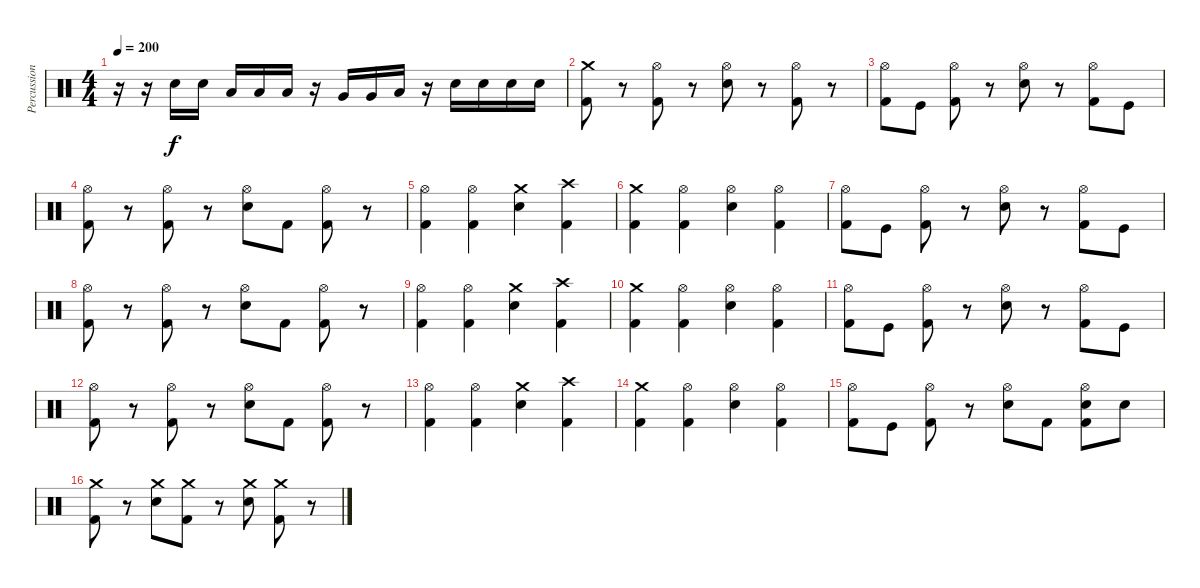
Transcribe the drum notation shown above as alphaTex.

\track ("Percussion" "Percussion") {instrument percussion}
\staff {score}
\articulation defaults
\ts (4 4)
\tempo 200
\clef neutral
\ks c
r.16{dy f} r.16 "Snare (hit) 2".16 "Snare (hit) 2".16 "Low Tom (hit)".16 "Low Tom (hit)".16 "Low Tom (hit)".16 r.16 "Very Low Tom (hit)".16 "Very Low Tom (hit)".16 "Low Floor Tom (hit)".16 r.16 "Snare (hit) 2".16 "Snare (hit) 2".16 "Snare (hit) 2".16 "Snare (hit) 2".16 |
("Crash medium (hit)" "Kick (hit) 2").8 r.8 ("Hi-Hat (open)" "Kick (hit) 2").8 r.8 ("Hi-Hat (open)" "Snare (hit) 2").8 r.8 ("Hi-Hat (open)" "Kick (hit) 2").8 r.8 |
("Hi-Hat (open)" "Kick (hit) 2").8 "Kick (hit)".8 ("Hi-Hat (open)" "Kick (hit) 2").8 r.8 ("Hi-Hat (open)" "Snare (hit) 2").8 r.8 ("Hi-Hat (open)" "Kick (hit) 2").8 "Kick (hit)".8 |
("Hi-Hat (open)" "Kick (hit) 2").8 r.8 ("Hi-Hat (open)" "Kick (hit) 2").8 r.8 ("Hi-Hat (open)" "Snare (hit) 2").8 "Kick (hit) 2".8 ("Hi-Hat (open)" "Kick (hit) 2").8 r.8 |
("Hi-Hat (open)" "Kick (hit) 2").4 ("Hi-Hat (open)" "Kick (hit) 2").4 ("Crash medium (hit)" "Snare (hit) 2").4 ("Crash high (hit)" "Kick (hit) 2").4 |
("Crash medium (hit)" "Kick (hit) 2").4 ("Hi-Hat (open)" "Kick (hit) 2").4 ("Hi-Hat (open)" "Snare (hit) 2").4 ("Hi-Hat (open)" "Kick (hit) 2").4 |
("Hi-Hat (open)" "Kick (hit) 2").8 "Kick (hit)".8 ("Hi-Hat (open)" "Kick (hit) 2").8 r.8 ("Hi-Hat (open)" "Snare (hit) 2").8 r.8 ("Hi-Hat (open)" "Kick (hit) 2").8 "Kick (hit)".8 |
("Hi-Hat (open)" "Kick (hit) 2").8 r.8 ("Hi-Hat (open)" "Kick (hit) 2").8 r.8 ("Hi-Hat (open)" "Snare (hit) 2").8 "Kick (hit) 2".8 ("Hi-Hat (open)" "Kick (hit) 2").8 r.8 |
("Hi-Hat (open)" "Kick (hit) 2").4 ("Hi-Hat (open)" "Kick (hit) 2").4 ("Crash medium (hit)" "Snare (hit) 2").4 ("Crash high (hit)" "Kick (hit) 2").4 |
("Crash medium (hit)" "Kick (hit) 2").4 ("Hi-Hat (open)" "Kick (hit) 2").4 ("Hi-Hat (open)" "Snare (hit) 2").4 ("Hi-Hat (open)" "Kick (hit) 2").4 |
("Hi-Hat (open)" "Kick (hit) 2").8 "Kick (hit)".8 ("Hi-Hat (open)" "Kick (hit) 2").8 r.8 ("Hi-Hat (open)" "Snare (hit) 2").8 r.8 ("Hi-Hat (open)" "Kick (hit) 2").8 "Kick (hit)".8 |
("Hi-Hat (open)" "Kick (hit) 2").8 r.8 ("Hi-Hat (open)" "Kick (hit) 2").8 r.8 ("Hi-Hat (open)" "Snare (hit) 2").8 "Kick (hit) 2".8 ("Hi-Hat (open)" "Kick (hit) 2").8 r.8 |
("Hi-Hat (open)" "Kick (hit) 2").4 ("Hi-Hat (open)" "Kick (hit) 2").4 ("Crash medium (hit)" "Snare (hit) 2").4 ("Crash high (hit)" "Kick (hit) 2").4 |
("Crash medium (hit)" "Kick (hit) 2").4 ("Hi-Hat (open)" "Kick (hit) 2").4 ("Hi-Hat (open)" "Snare (hit) 2").4 ("Hi-Hat (open)" "Kick (hit) 2").4 |
("Hi-Hat (open)" "Kick (hit) 2").8 "Kick (hit)".8 ("Hi-Hat (open)" "Kick (hit) 2").8 r.8 ("Hi-Hat (open)" "Snare (hit) 2").8 "Kick (hit) 2".8 ("Hi-Hat (open)" "Snare (hit) 2" "Kick (hit) 2").8 "Snare (hit) 2".8 |
("Crash medium (hit)" "Kick (hit) 2").8 r.8 ("Crash medium (hit)" "Snare (hit) 2").8 ("Crash medium (hit)" "Kick (hit) 2").8 r.8 ("Crash medium (hit)" "Snare (hit) 2").8 ("Crash medium (hit)" "Kick (hit) 2").8 r.8
